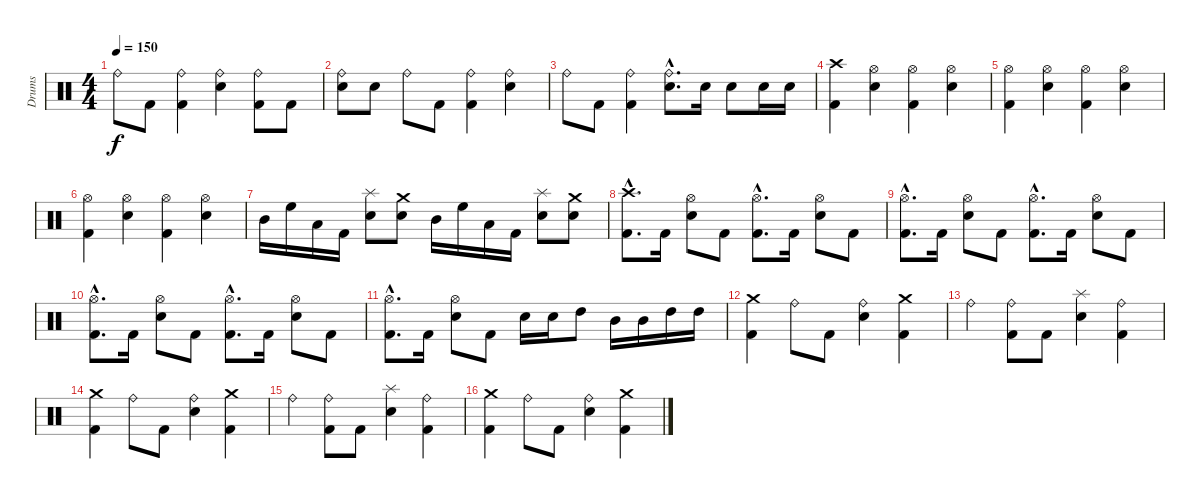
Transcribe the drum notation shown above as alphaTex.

\track ("Drums" "Drums") {instrument percussion}
\staff {score}
\articulation defaults
\ts (4 4)
\tempo 150
\clef neutral
\ks c "Ride (bell)".8{dy f} "Kick (hit) 2".8
("Ride (bell)" "Kick (hit) 2").4 ("Ride (bell)" "Electric Snare (hit)").4 ("Ride (bell)" "Kick (hit) 2").8 "Kick (hit) 2".8 |
("Ride (bell)" "Electric Snare (hit)").8 "Electric Snare (hit)".8 "Ride (bell)".8 "Kick (hit) 2".8 ("Ride (bell)" "Kick (hit) 2").4 ("Ride (bell)" "Electric Snare (hit)").4 |
"Ride (bell)".8 "Kick (hit) 2".8 ("Ride (bell)" "Kick (hit) 2").4 ("Ride (bell)"{hac} "Electric Snare (hit)"{hac}).8{d} "Electric Snare (hit)".16 "Electric Snare (hit)".8 "Electric Snare (hit)".16 "Electric Snare (hit)".16 |
("Crash high (hit)" "Kick (hit) 2").4 ("Hi-Hat (open)" "Electric Snare (hit)").4 ("Hi-Hat (open)" "Kick (hit) 2").4 ("Hi-Hat (open)" "Electric Snare (hit)").4 |
("Hi-Hat (open)" "Kick (hit) 2").4 ("Hi-Hat (open)" "Electric Snare (hit)").4 ("Hi-Hat (open)" "Kick (hit) 2").4 ("Hi-Hat (open)" "Electric Snare (hit)").4 |
("Hi-Hat (open)" "Kick (hit) 2").4 ("Hi-Hat (open)" "Electric Snare (hit)").4 ("Hi-Hat (open)" "Kick (hit) 2").4 ("Hi-Hat (open)" "Electric Snare (hit)").4 |
"Mid Tom (hit)".16 "High Floor Tom (hit)".16 "Low Floor Tom (hit)".16 "Kick (hit) 2".16 ("Splash (hit)" "Electric Snare (hit)").8 ("Crash medium (hit)" "Electric Snare (hit)").8 "Mid Tom (hit)".16 "High Floor Tom (hit)".16 "Low Floor Tom (hit)".16 "Kick (hit) 2".16 ("Splash (hit)" "Electric Snare (hit)").8 ("Crash medium (hit)" "Electric Snare (hit)").8 |
("Crash high (hit)"{hac} "Kick (hit) 2"{hac}).8{d} "Kick (hit) 2".16 ("Hi-Hat (open)" "Electric Snare (hit)").8 "Kick (hit) 2".8 ("Hi-Hat (open)"{hac} "Kick (hit) 2"{hac}).8{d} "Kick (hit) 2".16 ("Hi-Hat (open)" "Electric Snare (hit)").8 "Kick (hit) 2".8 |
("Hi-Hat (open)"{hac} "Kick (hit) 2"{hac}).8{d} "Kick (hit) 2".16 ("Hi-Hat (open)" "Electric Snare (hit)").8 "Kick (hit) 2".8 ("Hi-Hat (open)"{hac} "Kick (hit) 2"{hac}).8{d} "Kick (hit) 2".16 ("Hi-Hat (open)" "Electric Snare (hit)").8 "Kick (hit) 2".8 |
("Hi-Hat (open)"{hac} "Kick (hit) 2"{hac}).8{d} "Kick (hit) 2".16 ("Hi-Hat (open)" "Electric Snare (hit)").8 "Kick (hit) 2".8 ("Hi-Hat (open)"{hac} "Kick (hit) 2"{hac}).8{d} "Kick (hit) 2".16 ("Hi-Hat (open)" "Electric Snare (hit)").8 "Kick (hit) 2".8 |
("Hi-Hat (open)"{hac} "Kick (hit) 2"{hac}).8{d} "Kick (hit) 2".16 ("Hi-Hat (open)" "Electric Snare (hit)").8 "Kick (hit) 2".8 "Electric Snare (hit)".16 "Electric Snare (hit)".16 "High Tom (hit)".8 "Mid Tom (hit)".16 "Mid Tom (hit)".16 "High Tom (hit)".16 "High Tom (hit)".16 |
("Crash medium (hit)" "Kick (hit) 2").4 "Ride (bell)".8 "Kick (hit) 2".8 ("Ride (bell)" "Electric Snare (hit)").4 ("Crash medium (hit)" "Kick (hit) 2").4 |
"Ride (bell)".4 ("Ride (bell)" "Kick (hit) 2").8 "Kick (hit) 2".8 ("Splash (hit)" "Electric Snare (hit)").4 ("Ride (bell)" "Kick (hit) 2").4 |
("Crash medium (hit)" "Kick (hit) 2").4 "Ride (bell)".8 "Kick (hit) 2".8 ("Ride (bell)" "Electric Snare (hit)").4 ("Crash medium (hit)" "Kick (hit) 2").4 |
"Ride (bell)".4 ("Ride (bell)" "Kick (hit) 2").8 "Kick (hit) 2".8 ("Splash (hit)" "Electric Snare (hit)").4 ("Ride (bell)" "Kick (hit) 2").4 |
("Crash medium (hit)" "Kick (hit) 2").4 "Ride (bell)".8 "Kick (hit) 2".8 ("Ride (bell)" "Electric Snare (hit)").4 ("Crash medium (hit)" "Kick (hit) 2").4
